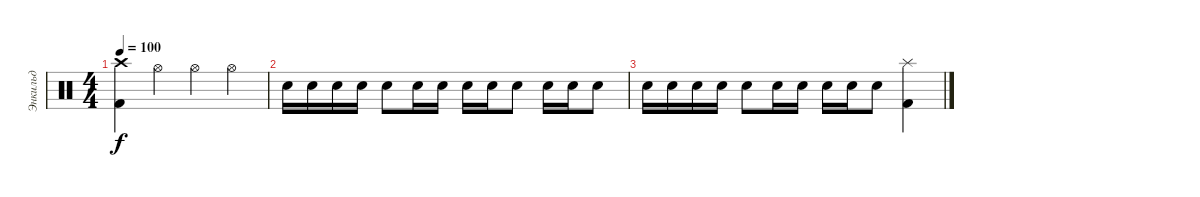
\track ("Энкильд" "Энкильд") {instrument percussion}
\staff {score}
\articulation defaults
\ts (4 4)
\tempo 100
\clef neutral
\ks c
("Crash high (hit)" "Kick (hit) 2").4{dy f} "Hi-Hat (open)".4 "Hi-Hat (open)".4 "Hi-Hat (open)".4 |
"Snare (hit) 2".16 "Snare (hit) 2".16 "Snare (hit) 2".16 "Snare (hit) 2".16 "Snare (hit) 2".8 "Snare (hit) 2".16 "Snare (hit) 2".16 "Snare (hit) 2".16 "Snare (hit) 2".16 "Snare (hit) 2".8 "Snare (hit) 2".16 "Snare (hit) 2".16 "Snare (hit) 2".8 |
"Snare (hit) 2".16 "Snare (hit) 2".16 "Snare (hit) 2".16 "Snare (hit) 2".16 "Snare (hit) 2".8 "Snare (hit) 2".16 "Snare (hit) 2".16 "Snare (hit) 2".16 "Snare (hit) 2".16 "Snare (hit) 2".8 ("Splash (hit)" "Kick (hit) 2").4
